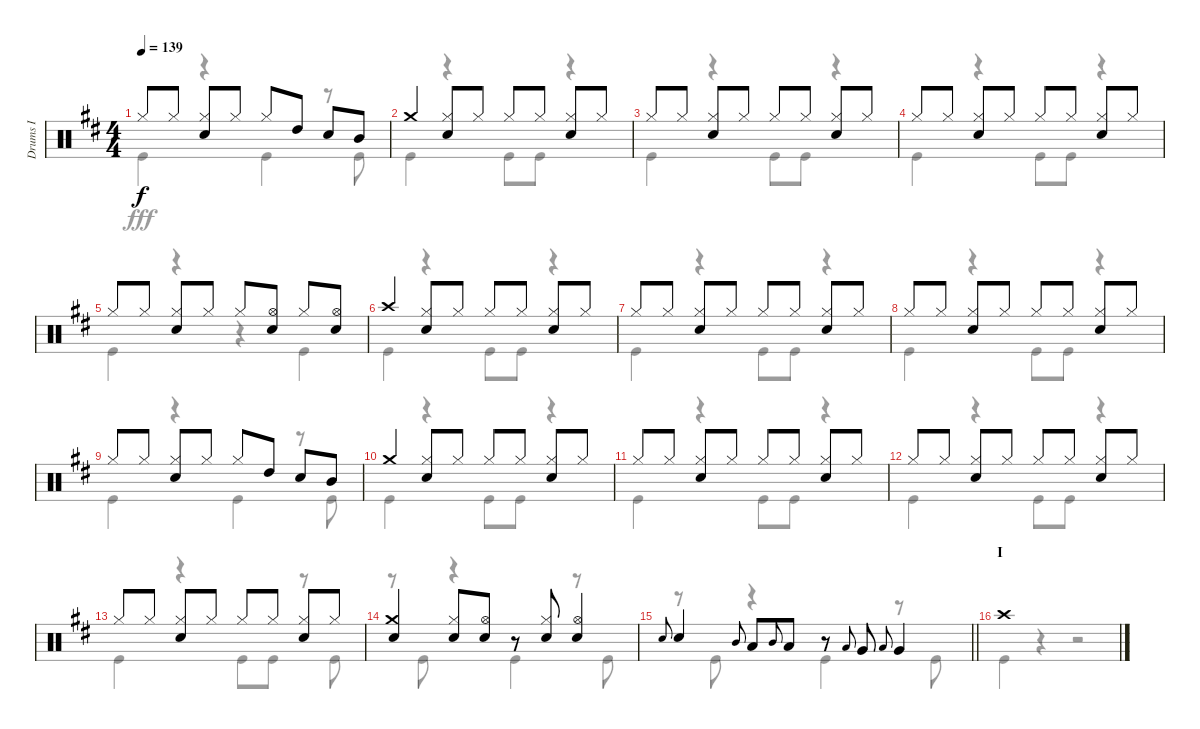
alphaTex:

\track ("Drums I" "Drums I") {instrument percussion}
\staff {score}
\articulation defaults
\voice
\ts (4 4)
\tempo 139
\clef neutral
\ks d "Hi-Hat (closed)".8{dy f} "Hi-Hat (closed)".8
("Hi-Hat (closed)" "Snare (hit) 2").8 "Hi-Hat (closed)".8 "Hi-Hat (closed)".8 "High Tom (hit)".8 "Snare (hit) 2".8 "Mid Tom (hit)".8 |
"Crash medium (hit)".4 ("Hi-Hat (closed)" "Snare (hit) 2").8 "Hi-Hat (closed)".8 "Hi-Hat (closed)".8 "Hi-Hat (closed)".8 ("Hi-Hat (closed)" "Snare (hit) 2").8 "Hi-Hat (closed)".8 |
"Hi-Hat (closed)".8 "Hi-Hat (closed)".8 ("Hi-Hat (closed)" "Snare (hit) 2").8 "Hi-Hat (closed)".8 "Hi-Hat (closed)".8 "Hi-Hat (closed)".8 ("Hi-Hat (closed)" "Snare (hit) 2").8 "Hi-Hat (closed)".8 |
"Hi-Hat (closed)".8 "Hi-Hat (closed)".8 ("Hi-Hat (closed)" "Snare (hit) 2").8 "Hi-Hat (closed)".8 "Hi-Hat (closed)".8 "Hi-Hat (closed)".8 ("Hi-Hat (closed)" "Snare (hit) 2").8 "Hi-Hat (closed)".8 |
"Hi-Hat (closed)".8 "Hi-Hat (closed)".8 ("Hi-Hat (closed)" "Snare (hit) 2").8 "Hi-Hat (closed)".8 "Hi-Hat (closed)".8 ("Hi-Hat (open)" "Snare (hit) 2").8 "Hi-Hat (closed)".8 ("Hi-Hat (open)" "Snare (hit) 2").8 |
"Crash high (hit)".4 ("Hi-Hat (closed)" "Snare (hit) 2").8 "Hi-Hat (closed)".8 "Hi-Hat (closed)".8 "Hi-Hat (closed)".8 ("Hi-Hat (closed)" "Snare (hit) 2").8 "Hi-Hat (closed)".8 |
"Hi-Hat (closed)".8 "Hi-Hat (closed)".8 ("Hi-Hat (closed)" "Snare (hit) 2").8 "Hi-Hat (closed)".8 "Hi-Hat (closed)".8 "Hi-Hat (closed)".8 ("Hi-Hat (closed)" "Snare (hit) 2").8 "Hi-Hat (closed)".8 |
"Hi-Hat (closed)".8 "Hi-Hat (closed)".8 ("Hi-Hat (closed)" "Snare (hit) 2").8 "Hi-Hat (closed)".8 "Hi-Hat (closed)".8 "Hi-Hat (closed)".8 ("Hi-Hat (closed)" "Snare (hit) 2").8 "Hi-Hat (closed)".8 |
"Hi-Hat (closed)".8 "Hi-Hat (closed)".8 ("Hi-Hat (closed)" "Snare (hit) 2").8 "Hi-Hat (closed)".8 "Hi-Hat (closed)".8 "High Tom (hit)".8 "Snare (hit) 2".8 "Mid Tom (hit)".8 |
"Crash medium (hit)".4 ("Hi-Hat (closed)" "Snare (hit) 2").8 "Hi-Hat (closed)".8 "Hi-Hat (closed)".8 "Hi-Hat (closed)".8 ("Hi-Hat (closed)" "Snare (hit) 2").8 "Hi-Hat (closed)".8 |
"Hi-Hat (closed)".8 "Hi-Hat (closed)".8 ("Hi-Hat (closed)" "Snare (hit) 2").8 "Hi-Hat (closed)".8 "Hi-Hat (closed)".8 "Hi-Hat (closed)".8 ("Hi-Hat (closed)" "Snare (hit) 2").8 "Hi-Hat (closed)".8 |
"Hi-Hat (closed)".8 "Hi-Hat (closed)".8 ("Hi-Hat (closed)" "Snare (hit) 2").8 "Hi-Hat (closed)".8 "Hi-Hat (closed)".8 "Hi-Hat (closed)".8 ("Hi-Hat (closed)" "Snare (hit) 2").8 "Hi-Hat (closed)".8 |
"Hi-Hat (closed)".8 "Hi-Hat (closed)".8 ("Hi-Hat (closed)" "Snare (hit) 2").8 "Hi-Hat (closed)".8 "Hi-Hat (closed)".8 "Hi-Hat (closed)".8 ("Hi-Hat (closed)" "Snare (hit) 2").8 "Hi-Hat (closed)".8 |
("Crash medium (hit)" "Snare (hit) 2").4 ("Hi-Hat (closed)" "Snare (hit) 2").8 ("Hi-Hat (open)" "Snare (hit) 2").8 r.8 ("Hi-Hat (closed)" "Snare (hit) 2").8 ("Hi-Hat (open)" "Snare (hit) 2").4 |
\barLineRight lightlight "Snare (hit) 2".8{gr onbeat} "Snare (hit) 2".4 "Mid Tom (hit)".8{gr onbeat} "Low Tom (hit)".8 "Mid Tom (hit)".8{gr onbeat} "Low Tom (hit)".8
r.8 "Low Tom (hit)".8{gr onbeat} "Very Low Tom (hit)".8 "Low Tom (hit)".8{gr onbeat} "Very Low Tom (hit)".4 |
\section ("" "I")
"Crash high (hit)".1
\voice
\clef neutral
\ottava regular
\simile none
\ks d "Kick (hit)".4{dy fff}
r.4 "Kick (hit)".4 r.8 "Kick (hit)".8 |
"Kick (hit)".4 r.4 "Kick (hit)".8 "Kick (hit)".8 r.4 |
"Kick (hit)".4 r.4 "Kick (hit)".8 "Kick (hit)".8 r.4 |
"Kick (hit)".4 r.4 "Kick (hit)".8 "Kick (hit)".8 r.4 |
"Kick (hit)".4 r.4 r.4 "Kick (hit)".4 |
"Kick (hit)".4 r.4 "Kick (hit)".8 "Kick (hit)".8 r.4 |
"Kick (hit)".4 r.4 "Kick (hit)".8 "Kick (hit)".8 r.4 |
"Kick (hit)".4 r.4 "Kick (hit)".8 "Kick (hit)".8 r.4 |
"Kick (hit)".4 r.4 "Kick (hit)".4 r.8 "Kick (hit)".8 |
"Kick (hit)".4 r.4 "Kick (hit)".8 "Kick (hit)".8 r.4 |
"Kick (hit)".4 r.4 "Kick (hit)".8 "Kick (hit)".8 r.4 |
"Kick (hit)".4 r.4 "Kick (hit)".8 "Kick (hit)".8 r.4 |
"Kick (hit)".4 r.4 "Kick (hit)".8 "Kick (hit)".8 r.8 "Kick (hit)".8 |
r.8 "Kick (hit)".8 r.4 "Kick (hit)".4 r.8 "Kick (hit)".8 |
\barLineRight lightlight
r.8 "Kick (hit)".8 r.4 "Kick (hit)".4 r.8 "Kick (hit)".8 |
"Kick (hit)".4 r.4 r.2
